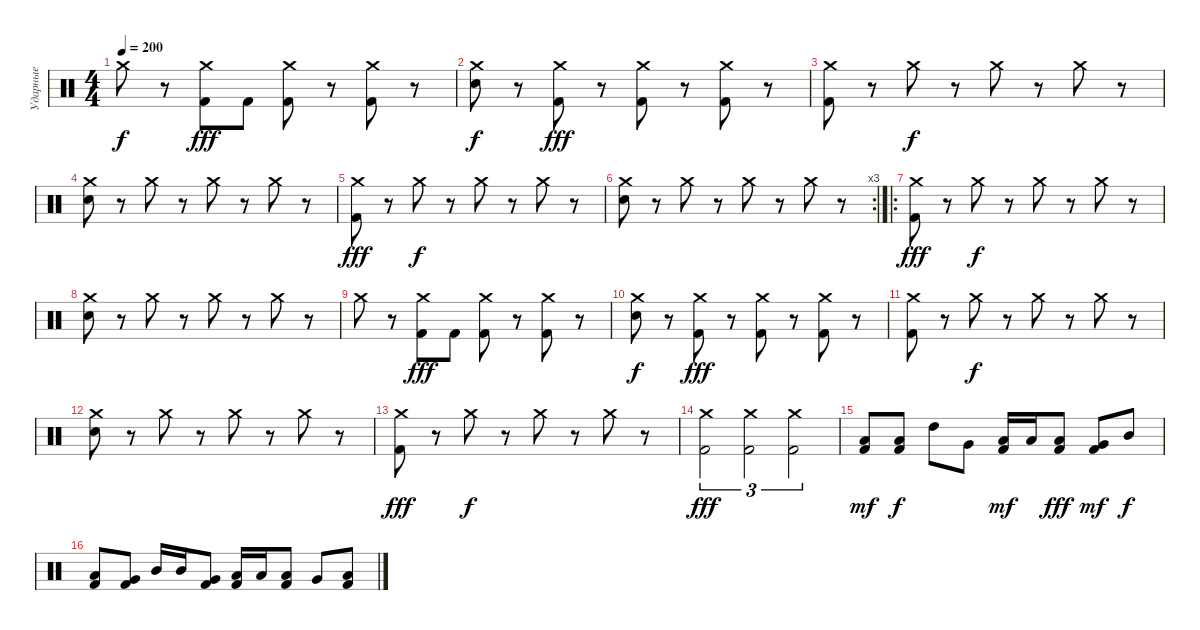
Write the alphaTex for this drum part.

\track ("Ударные" "Ударные") {instrument percussion}
\staff {score}
\articulation defaults
\ts (4 4)
\tempo 200
\clef neutral
\ks c "Crash medium (hit)".8{dy f}
r.8 ("Crash medium (hit)" "Kick (hit) 2").8{dy fff} "Kick (hit) 2".8 ("Crash medium (hit)" "Kick (hit) 2").8 r.8 ("Crash medium (hit)" "Kick (hit) 2").8 r.8 |
("Crash medium (hit)" "Electric Snare (hit)").8{dy f} r.8 ("Crash medium (hit)" "Kick (hit) 2").8{dy fff} r.8 ("Crash medium (hit)" "Kick (hit) 2").8 r.8 ("Crash medium (hit)" "Kick (hit) 2").8 r.8 |
("Crash medium (hit)" "Kick (hit) 2").8 r.8 "Crash medium (hit)".8{dy f} r.8 "Crash medium (hit)".8 r.8 "Crash medium (hit)".8 r.8 |
("Crash medium (hit)" "Electric Snare (hit)").8 r.8 "Crash medium (hit)".8 r.8 "Crash medium (hit)".8 r.8 "Crash medium (hit)".8 r.8 |
("Crash medium (hit)" "Kick (hit) 2").8{dy fff} r.8 "Crash medium (hit)".8{dy f} r.8 "Crash medium (hit)".8 r.8 "Crash medium (hit)".8 r.8 |
\rc 3
("Crash medium (hit)" "Electric Snare (hit)").8 r.8 "Crash medium (hit)".8 r.8 "Crash medium (hit)".8 r.8 "Crash medium (hit)".8 r.8 |
\ro
("Crash medium (hit)" "Kick (hit) 2").8{dy fff} r.8 "Crash medium (hit)".8{dy f} r.8 "Crash medium (hit)".8 r.8 "Crash medium (hit)".8 r.8 |
("Crash medium (hit)" "Electric Snare (hit)").8 r.8 "Crash medium (hit)".8 r.8 "Crash medium (hit)".8 r.8 "Crash medium (hit)".8 r.8 |
"Crash medium (hit)".8 r.8 ("Crash medium (hit)" "Kick (hit) 2").8{dy fff} "Kick (hit) 2".8 ("Crash medium (hit)" "Kick (hit) 2").8 r.8 ("Crash medium (hit)" "Kick (hit) 2").8 r.8 |
("Crash medium (hit)" "Electric Snare (hit)").8{dy f} r.8 ("Crash medium (hit)" "Kick (hit) 2").8{dy fff} r.8 ("Crash medium (hit)" "Kick (hit) 2").8 r.8 ("Crash medium (hit)" "Kick (hit) 2").8 r.8 |
("Crash medium (hit)" "Kick (hit) 2").8 r.8 "Crash medium (hit)".8{dy f} r.8 "Crash medium (hit)".8 r.8 "Crash medium (hit)".8 r.8 |
("Crash medium (hit)" "Electric Snare (hit)").8 r.8 "Crash medium (hit)".8 r.8 "Crash medium (hit)".8 r.8 "Crash medium (hit)".8 r.8 |
("Crash medium (hit)" "Kick (hit) 2").8{dy fff} r.8 "Crash medium (hit)".8{dy f} r.8 "Crash medium (hit)".8 r.8 "Crash medium (hit)".8 r.8 |
("Crash medium (hit)" "Kick (hit) 2").2{tu (3 2) dy fff} ("Crash medium (hit)" "Kick (hit) 2").2{tu (3 2)} ("Crash medium (hit)" "Kick (hit) 2").2{tu (3 2)} |
("Low Floor Tom (hit)" "Kick (hit) 2").8{dy mf} ("Low Floor Tom (hit)" "Kick (hit) 2").8{dy f} "High Tom (hit)".8 "Very Low Tom (hit)".8 ("Low Tom (hit)" "Kick (hit) 2").16{dy mf} "Low Tom (hit)".16 ("Low Floor Tom (hit)" "Kick (hit) 2").8{dy fff} ("Very Low Tom (hit)" "Kick (hit) 2").8{dy mf} "Mid Tom (hit)".8{dy f} |
("Low Floor Tom (hit)" "Kick (hit) 2").8 ("Very Low Tom (hit)" "Kick (hit) 2").8 "Mid Tom (hit)".16 "Mid Tom (hit)".16 ("Very Low Tom (hit)" "Kick (hit) 2").8 ("Low Tom (hit)" "Kick (hit) 2").16 "Low Tom (hit)".16 ("Low Floor Tom (hit)" "Kick (hit) 2").8 "Very Low Tom (hit)".8 ("Low Tom (hit)" "Kick (hit) 2").8
